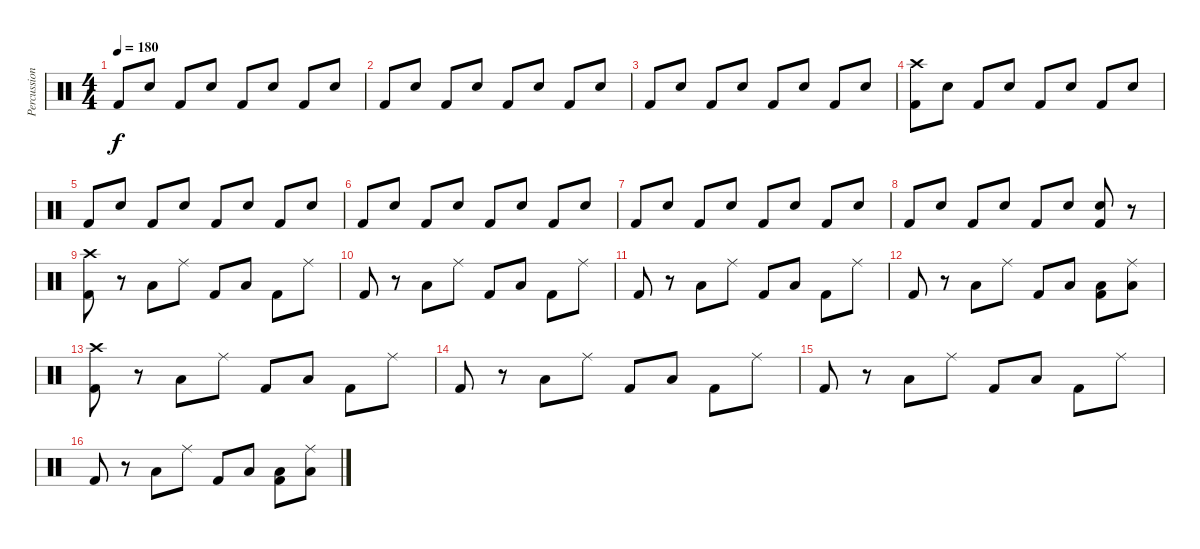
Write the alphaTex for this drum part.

\track ("Percussions" "Percussion") {instrument percussion}
\staff {score}
\articulation defaults
\ts (4 4)
\tempo 180
\clef neutral
\ks c "Kick (hit) 2".8{dy f} "Electric Snare (hit)".8 "Kick (hit) 2".8 "Electric Snare (hit)".8 "Kick (hit) 2".8 "Electric Snare (hit)".8 "Kick (hit) 2".8 "Electric Snare (hit)".8
|
"Kick (hit) 2".8 "Electric Snare (hit)".8 "Kick (hit) 2".8 "Electric Snare (hit)".8 "Kick (hit) 2".8 "Electric Snare (hit)".8 "Kick (hit) 2".8 "Electric Snare (hit)".8 |
"Kick (hit) 2".8 "Electric Snare (hit)".8 "Kick (hit) 2".8 "Electric Snare (hit)".8 "Kick (hit) 2".8 "Electric Snare (hit)".8 "Kick (hit) 2".8 "Electric Snare (hit)".8 |
("Crash high (hit)" "Kick (hit) 2").8 "Electric Snare (hit)".8 "Kick (hit) 2".8 "Electric Snare (hit)".8 "Kick (hit) 2".8 "Electric Snare (hit)".8 "Kick (hit) 2".8 "Electric Snare (hit)".8 |
"Kick (hit) 2".8 "Electric Snare (hit)".8 "Kick (hit) 2".8 "Electric Snare (hit)".8 "Kick (hit) 2".8 "Electric Snare (hit)".8 "Kick (hit) 2".8 "Electric Snare (hit)".8 |
"Kick (hit) 2".8 "Electric Snare (hit)".8 "Kick (hit) 2".8 "Electric Snare (hit)".8 "Kick (hit) 2".8 "Electric Snare (hit)".8 "Kick (hit) 2".8 "Electric Snare (hit)".8 |
"Kick (hit) 2".8 "Electric Snare (hit)".8 "Kick (hit) 2".8 "Electric Snare (hit)".8 "Kick (hit) 2".8 "Electric Snare (hit)".8 "Kick (hit) 2".8 "Electric Snare (hit)".8 |
"Kick (hit) 2".8 "Electric Snare (hit)".8 "Kick (hit) 2".8 "Electric Snare (hit)".8 "Kick (hit) 2".8 "Electric Snare (hit)".8 ("Electric Snare (hit)" "Kick (hit) 2").8 r.8 |
("Crash high (hit)" "Kick (hit) 2").8 r.8 "Low Tom (hit)".8 "Ride (middle)".8 "Kick (hit) 2".8 "Low Tom (hit)".8 "Kick (hit) 2".8 "Ride (middle)".8 |
"Kick (hit) 2".8 r.8 "Low Tom (hit)".8 "Ride (middle)".8 "Kick (hit) 2".8 "Low Tom (hit)".8 "Kick (hit) 2".8 "Ride (middle)".8 |
"Kick (hit) 2".8 r.8 "Low Tom (hit)".8 "Ride (middle)".8 "Kick (hit) 2".8 "Low Tom (hit)".8 "Kick (hit) 2".8 "Ride (middle)".8 |
"Kick (hit) 2".8 r.8 "Low Tom (hit)".8 "Ride (middle)".8 "Kick (hit) 2".8 "Low Tom (hit)".8 ("Low Floor Tom (hit)" "Kick (hit) 2").8 ("Ride (middle)" "Low Floor Tom (hit)").8 |
("Crash high (hit)" "Kick (hit) 2").8 r.8 "Low Tom (hit)".8 "Ride (middle)".8 "Kick (hit) 2".8 "Low Tom (hit)".8 "Kick (hit) 2".8 "Ride (middle)".8 |
"Kick (hit) 2".8 r.8 "Low Tom (hit)".8 "Ride (middle)".8 "Kick (hit) 2".8 "Low Tom (hit)".8 "Kick (hit) 2".8 "Ride (middle)".8 |
"Kick (hit) 2".8 r.8 "Low Tom (hit)".8 "Ride (middle)".8 "Kick (hit) 2".8 "Low Tom (hit)".8 "Kick (hit) 2".8 "Ride (middle)".8 |
"Kick (hit) 2".8 r.8 "Low Tom (hit)".8 "Ride (middle)".8 "Kick (hit) 2".8 "Low Tom (hit)".8 ("Low Floor Tom (hit)" "Kick (hit) 2").8 ("Ride (middle)" "Low Floor Tom (hit)").8
